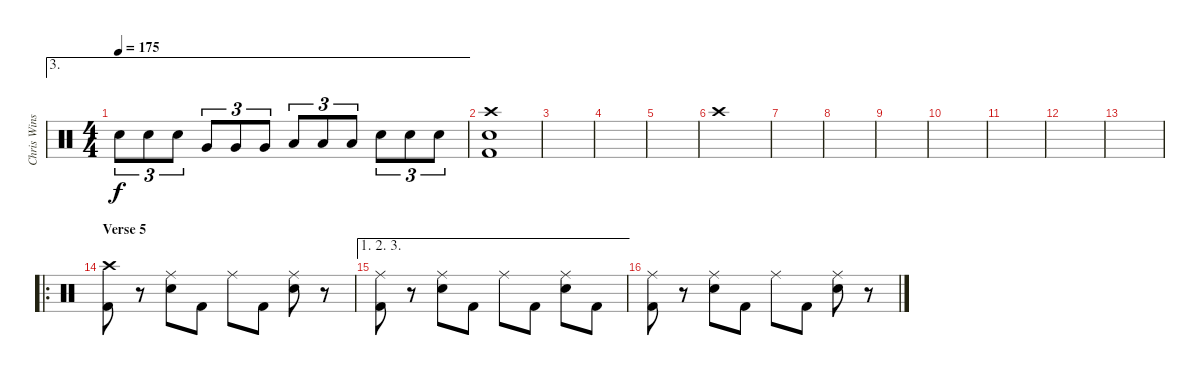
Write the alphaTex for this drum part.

\track ("Chris Winship (Drums)" "Chris Wins") {instrument percussion}
\staff {score}
\articulation defaults
\ae 3
\ts (4 4)
\tempo 175
\clef neutral
\ks c "Snare (hit) 2".8{tu (3 2) dy f} "Snare (hit) 2".8{tu (3 2)} "Snare (hit) 2".8{tu (3 2)} "Very Low Tom (hit)".8{tu (3 2)} "Very Low Tom (hit)".8{tu (3 2)} "Very Low Tom (hit)".8{tu (3 2)} "Low Floor Tom (hit)".8{tu (3 2)} "Low Floor Tom (hit)".8{tu (3 2)} "Low Floor Tom (hit)".8{tu (3 2)} "Snare (hit) 2".8{tu (3 2)} "Snare (hit) 2".8{tu (3 2)} "Snare (hit) 2".8{tu (3 2)}
|
("Crash high (hit)" "Snare (hit) 2" "Kick (hit) 2").1 |
|
|
|
"Crash high (hit)".1 |
|
|
|
|
|
|
|
\ro
\section ("" "Verse 5")
("Crash high (hit)" "Kick (hit) 2").8 r.8 ("Ride (middle)" "Snare (hit) 2").8 "Kick (hit) 2".8 "Ride (middle)".8 "Kick (hit) 2".8 ("Ride (middle)" "Snare (hit) 2").8 r.8 |
\ae (1 2 3)
("Ride (middle)" "Kick (hit) 2").8 r.8 ("Ride (middle)" "Snare (hit) 2").8 "Kick (hit) 2".8 "Ride (middle)".8 "Kick (hit) 2".8 ("Ride (middle)" "Snare (hit) 2").8 "Kick (hit) 2".8 |
("Ride (middle)" "Kick (hit) 2").8 r.8 ("Ride (middle)" "Snare (hit) 2").8 "Kick (hit) 2".8 "Ride (middle)".8 "Kick (hit) 2".8 ("Ride (middle)" "Snare (hit) 2").8 r.8
